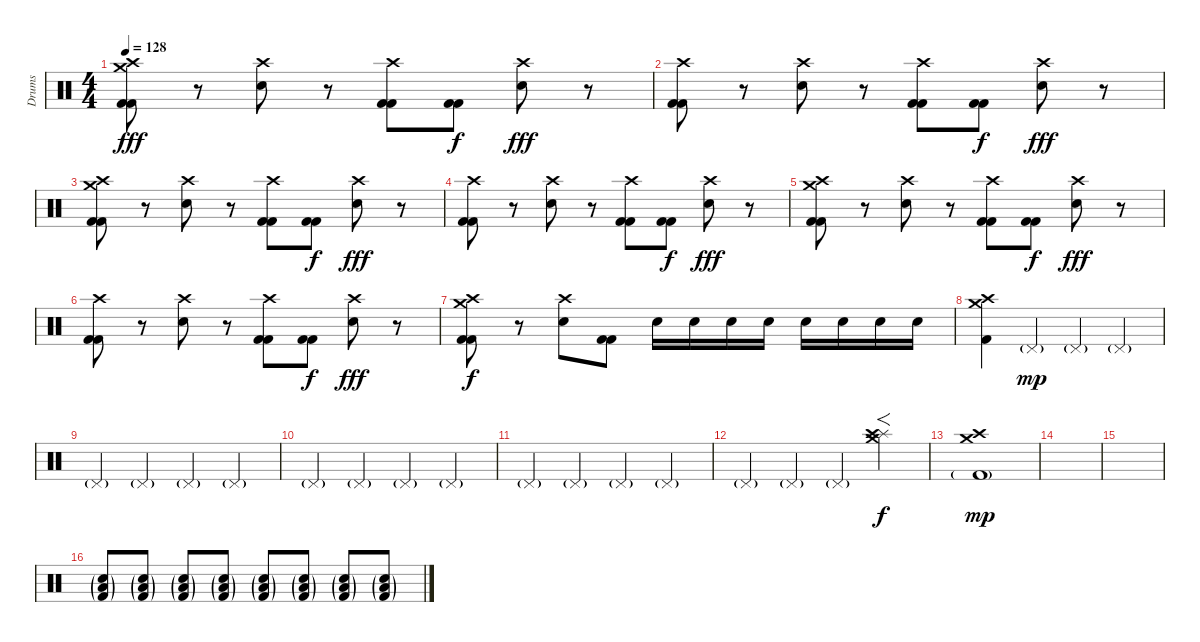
\track ("Drums" "Drums") {instrument percussion}
\staff {score}
\articulation defaults
\ts (4 4)
\tempo 128
\clef neutral
\ks c
("Crash high (hit)" "Crash medium (hit)" "Kick (hit) 2" "Kick (hit) 2").8{dy fff} r.8 ("Crash high (hit)" "Electric Snare (hit)").8 r.8 ("Crash high (hit)" "Kick (hit) 2" "Kick (hit) 2").8 ("Kick (hit) 2" "Kick (hit) 2").8{dy f} ("Crash high (hit)" "Electric Snare (hit)").8{dy fff} r.8 |
("Crash high (hit)" "Kick (hit) 2" "Kick (hit) 2").8 r.8 ("Crash high (hit)" "Electric Snare (hit)").8 r.8 ("Crash high (hit)" "Kick (hit) 2" "Kick (hit) 2").8 ("Kick (hit) 2" "Kick (hit) 2").8{dy f} ("Crash high (hit)" "Electric Snare (hit)").8{dy fff} r.8 |
("Crash high (hit)" "Crash medium (hit)" "Kick (hit) 2" "Kick (hit) 2").8 r.8 ("Crash high (hit)" "Electric Snare (hit)").8 r.8 ("Crash high (hit)" "Kick (hit) 2" "Kick (hit) 2").8 ("Kick (hit) 2" "Kick (hit) 2").8{dy f} ("Crash high (hit)" "Electric Snare (hit)").8{dy fff} r.8 |
("Crash high (hit)" "Kick (hit) 2" "Kick (hit) 2").8 r.8 ("Crash high (hit)" "Electric Snare (hit)").8 r.8 ("Crash high (hit)" "Kick (hit) 2" "Kick (hit) 2").8 ("Kick (hit) 2" "Kick (hit) 2").8{dy f} ("Crash high (hit)" "Electric Snare (hit)").8{dy fff} r.8 |
("Crash high (hit)" "Crash medium (hit)" "Kick (hit) 2" "Kick (hit) 2").8 r.8 ("Crash high (hit)" "Electric Snare (hit)").8 r.8 ("Crash high (hit)" "Kick (hit) 2" "Kick (hit) 2").8 ("Kick (hit) 2" "Kick (hit) 2").8{dy f} ("Crash high (hit)" "Electric Snare (hit)").8{dy fff} r.8 |
("Crash high (hit)" "Kick (hit) 2" "Kick (hit) 2").8 r.8 ("Crash high (hit)" "Electric Snare (hit)").8 r.8 ("Crash high (hit)" "Kick (hit) 2" "Kick (hit) 2").8 ("Kick (hit) 2" "Kick (hit) 2").8{dy f} ("Crash high (hit)" "Electric Snare (hit)").8{dy fff} r.8 |
("Crash high (hit)" "Crash medium (hit)" "Kick (hit) 2" "Kick (hit) 2").8{dy f} r.8 ("Crash high (hit)" "Electric Snare (hit)").8 ("Kick (hit) 2" "Kick (hit) 2").8 "Electric Snare (hit)".16 "Electric Snare (hit)".16 "Electric Snare (hit)".16 "Electric Snare (hit)".16 "Electric Snare (hit)".16 "Electric Snare (hit)".16 "Electric Snare (hit)".16 "Electric Snare (hit)".16 |
("Crash medium (hit)" "Crash high (hit)" "Kick (hit) 2").4 "Pedal Hi-Hat (hit)"{g}.4{dy mp} "Pedal Hi-Hat (hit)"{g}.4 "Pedal Hi-Hat (hit)"{g}.4 |
"Pedal Hi-Hat (hit)"{g}.4 "Pedal Hi-Hat (hit)"{g}.4 "Pedal Hi-Hat (hit)"{g}.4 "Pedal Hi-Hat (hit)"{g}.4 |
"Pedal Hi-Hat (hit)"{g}.4 "Pedal Hi-Hat (hit)"{g}.4 "Pedal Hi-Hat (hit)"{g}.4 "Pedal Hi-Hat (hit)"{g}.4 |
"Pedal Hi-Hat (hit)"{g}.4 "Pedal Hi-Hat (hit)"{g}.4 "Pedal Hi-Hat (hit)"{g}.4 "Pedal Hi-Hat (hit)"{g}.4 |
"Pedal Hi-Hat (hit)"{g}.4 "Pedal Hi-Hat (hit)"{g}.4 "Pedal Hi-Hat (hit)"{g}.4 ("Splash (hit)" "Crash high (hit)" "Crash medium (hit)").4{f dy f} |
("Crash medium (hit)" "Crash high (hit)" "Kick (hit) 2"{g}).1{dy mp} |
|
|
("Snare (hit) 2"{g} "Low Floor Tom (hit)"{g} "Kick (hit) 2"{g}).8{volume 5} ("Snare (hit) 2"{g} "Low Floor Tom (hit)"{g} "Kick (hit) 2"{g}).8{volume 16} ("Snare (hit) 2"{g} "Low Floor Tom (hit)"{g} "Kick (hit) 2"{g}).8 ("Snare (hit) 2"{g} "Low Floor Tom (hit)"{g} "Kick (hit) 2"{g}).8 ("Snare (hit) 2"{g} "Low Floor Tom (hit)"{g} "Kick (hit) 2"{g}).8 ("Snare (hit) 2"{g} "Low Floor Tom (hit)"{g} "Kick (hit) 2"{g}).8 ("Snare (hit) 2"{g} "Low Floor Tom (hit)"{g} "Kick (hit) 2"{g}).8 ("Snare (hit) 2"{g} "Low Floor Tom (hit)"{g} "Kick (hit) 2"{g}).8
